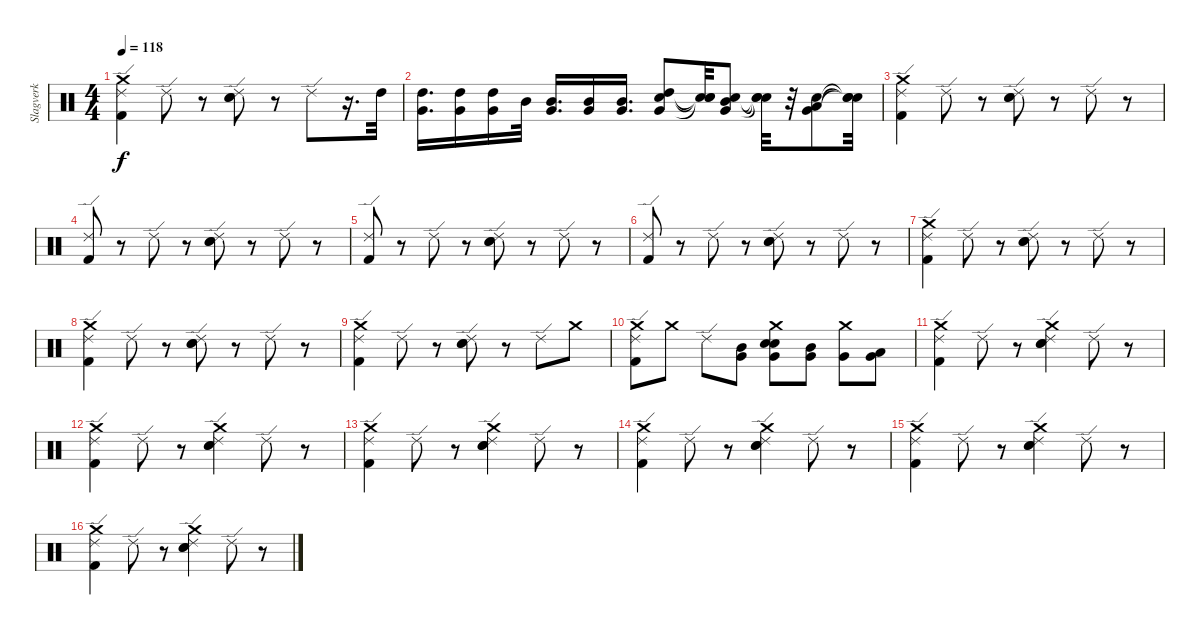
\track ("Slagverk" "Slagverk") {instrument percussion}
\staff {score}
\articulation defaults
\ts (4 4)
\tempo 118
\clef neutral
\ks c
("Crash medium (hit)" "Kick (hit) 2" "Ride (edge) 2").4{dy f} "Ride (edge) 2".8 r.8 ("Electric Snare (hit)" "Snare (hit) 2" "Ride (edge) 2").8 r.8 "Ride (edge) 2".8 r.16{d} "High Tom (hit)".32 |
("Very Low Tom (hit)" "High Tom (hit)").16{d} ("Very Low Tom (hit)" "High Tom (hit)").16 ("Very Low Tom (hit)" "High Tom (hit)").16 "Mid Tom (hit)".32 ("Very Low Tom (hit)" "Mid Tom (hit)").16{d} ("Very Low Tom (hit)" "Mid Tom (hit)").16 ("Very Low Tom (hit)" "Mid Tom (hit)").16{d} ("Very Low Tom (hit)" "High Tom (hit)" "Electric Snare (hit)").8 ("Snare (hit)"{t} "Snare (hit)"{t} "Snare (hit)"{t}).32 ("Very Low Tom (hit)" "Mid Tom (hit)" "Electric Snare (hit)").8 ("Snare (hit)"{t} "Snare (hit)"{t} "Snare (hit)"{t}).32 r.32 ("Very Low Tom (hit)" "Low Tom (hit)" "Electric Snare (hit)").8 ("Snare (hit)"{t} "Snare (hit)"{t} "Snare (hit)"{t}).32 |
("Crash medium (hit)" "Kick (hit) 2" "Ride (edge) 2").4 "Ride (edge) 2".8 r.8 ("Electric Snare (hit)" "Snare (hit) 2" "Ride (edge) 2").8 r.8 "Ride (edge) 2".8 r.8 |
("Kick (hit) 2" "Ride (edge) 2").8 r.8 "Ride (edge) 2".8 r.8 ("Electric Snare (hit)" "Snare (hit) 2" "Ride (edge) 2").8 r.8 "Ride (edge) 2".8 r.8 |
("Kick (hit) 2" "Ride (edge) 2").8 r.8 "Ride (edge) 2".8 r.8 ("Electric Snare (hit)" "Snare (hit) 2" "Ride (edge) 2").8 r.8 "Ride (edge) 2".8 r.8 |
("Kick (hit) 2" "Ride (edge) 2").8 r.8 "Ride (edge) 2".8 r.8 ("Electric Snare (hit)" "Snare (hit) 2" "Ride (edge) 2").8 r.8 "Ride (edge) 2".8 r.8 |
("Crash medium (hit)" "Kick (hit) 2" "Ride (edge) 2").4 "Ride (edge) 2".8 r.8 ("Electric Snare (hit)" "Snare (hit) 2" "Ride (edge) 2").8 r.8 "Ride (edge) 2".8 r.8 |
("Crash medium (hit)" "Kick (hit) 2" "Ride (edge) 2").4 "Ride (edge) 2".8 r.8 ("Electric Snare (hit)" "Snare (hit) 2" "Ride (edge) 2").8 r.8 "Ride (edge) 2".8 r.8 |
("Crash medium (hit)" "Kick (hit) 2" "Ride (edge) 2").4 "Ride (edge) 2".8 r.8 ("Electric Snare (hit)" "Snare (hit) 2" "Ride (edge) 2").8 r.8 "Ride (edge) 2".8 "Crash medium (hit)".8 |
("Crash medium (hit)" "Kick (hit) 2" "Ride (edge) 2").8 "Crash medium (hit)".8 "Ride (edge) 2".8 ("Mid Tom (hit)" "Very Low Tom (hit)").8 ("Crash medium (hit)" "Very Low Tom (hit)" "Electric Snare (hit)" "Snare (hit) 2").8 ("Mid Tom (hit)" "Very Low Tom (hit)").8 ("Crash medium (hit)" "Very Low Tom (hit)").8 ("Low Tom (hit)" "Very Low Tom (hit)").8 |
("Crash medium (hit)" "Kick (hit) 2" "Ride (edge) 2").4 "Ride (edge) 2".8 r.8 ("Crash medium (hit)" "Electric Snare (hit)" "Snare (hit) 2" "Ride (edge) 2").4 "Ride (edge) 2".8 r.8 |
("Crash medium (hit)" "Kick (hit) 2" "Ride (edge) 2").4 "Ride (edge) 2".8 r.8 ("Crash medium (hit)" "Electric Snare (hit)" "Snare (hit) 2" "Ride (edge) 2").4 "Ride (edge) 2".8 r.8 |
("Crash medium (hit)" "Kick (hit) 2" "Ride (edge) 2").4 "Ride (edge) 2".8 r.8 ("Crash medium (hit)" "Electric Snare (hit)" "Snare (hit) 2" "Ride (edge) 2").4 "Ride (edge) 2".8 r.8 |
("Crash medium (hit)" "Kick (hit) 2" "Ride (edge) 2").4 "Ride (edge) 2".8 r.8 ("Crash medium (hit)" "Electric Snare (hit)" "Snare (hit) 2" "Ride (edge) 2").4 "Ride (edge) 2".8 r.8 |
("Crash medium (hit)" "Kick (hit) 2" "Ride (edge) 2").4{volume 12} "Ride (edge) 2".8 r.8 ("Crash medium (hit)" "Electric Snare (hit)" "Snare (hit) 2" "Ride (edge) 2").4{volume 12} "Ride (edge) 2".8 r.8 |
("Crash medium (hit)" "Kick (hit) 2" "Ride (edge) 2").4{volume 12} "Ride (edge) 2".8{volume 11} r.8 ("Crash medium (hit)" "Electric Snare (hit)" "Snare (hit) 2" "Ride (edge) 2").4 "Ride (edge) 2".8{volume 11} r.8
